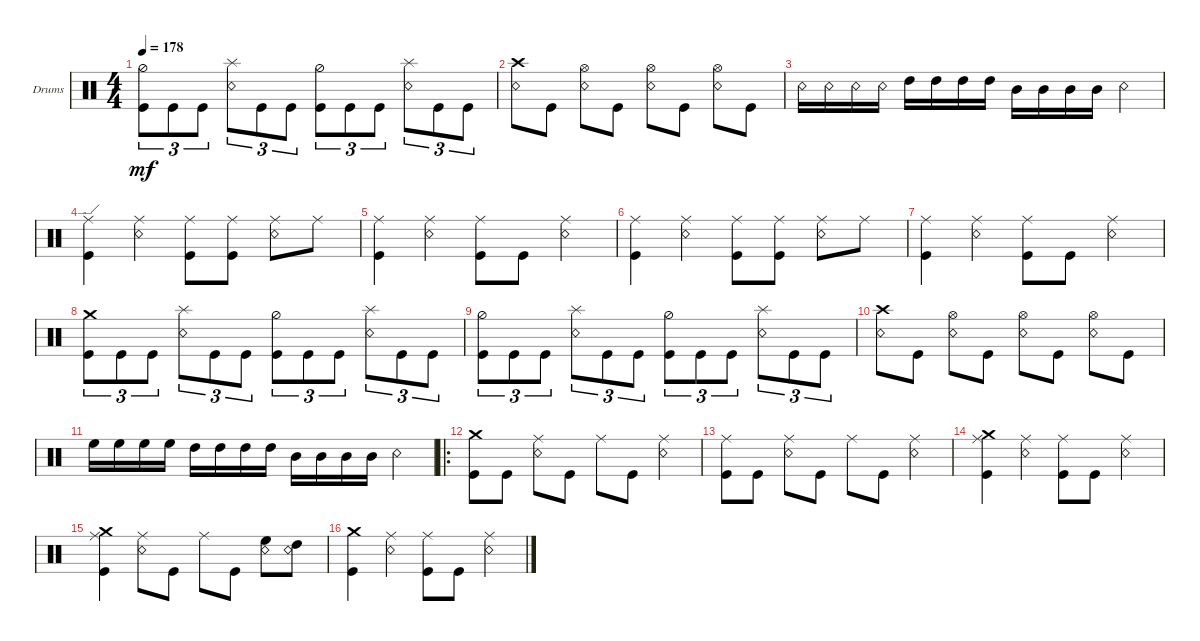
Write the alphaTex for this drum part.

\defaultSystemsLayout 4
\bracketExtendMode groupsimilarinstruments
\firstSystemTrackNameOrientation horizontal
\otherSystemsTrackNameOrientation horizontal
\track ("Drumkit" "Drums") {instrument percussion}
\staff {score}
\articulation defaults
\ts (4 4)
\tempo 178
\clef neutral
\ks c
("Kick (hit)" "Hi-Hat (half)").8{tu (3 2) dy mf} "Kick (hit)".8{tu (3 2)} "Kick (hit)".8{tu (3 2)} ("Snare (rim shot)" "Splash (hit)").8{tu (3 2)} "Kick (hit)".8{tu (3 2)} "Kick (hit)".8{tu (3 2)} ("Kick (hit)" "Hi-Hat (half)").8{tu (3 2)} "Kick (hit)".8{tu (3 2)} "Kick (hit)".8{tu (3 2)} ("Snare (rim shot)" "Splash (hit)").8{tu (3 2)} "Kick (hit)".8{tu (3 2)} "Kick (hit)".8{tu (3 2)} |
("Crash high (hit)" "Snare (rim shot)").8 "Kick (hit)".8 ("Snare (rim shot)" "Hi-Hat (open)").8 "Kick (hit)".8 ("Snare (rim shot)" "Hi-Hat (open)").8 "Kick (hit)".8 ("Snare (rim shot)" "Hi-Hat (open)").8 "Kick (hit)".8 |
"Snare (rim shot)".16 "Snare (rim shot)".16 "Snare (rim shot)".16 "Snare (rim shot)".16 "High Tom (hit)".16 "High Tom (hit)".16 "High Tom (hit)".16 "High Tom (hit)".16 "Mid Tom (hit)".16 "Mid Tom (hit)".16 "Mid Tom (hit)".16 "Mid Tom (hit)".16 "Snare (rim shot)".4 |
("Kick (hit)" "Ride (edge)").4 ("Ride (middle)" "Snare (rim shot)").4 ("Ride (middle)" "Kick (hit)").8 ("Kick (hit)" "Ride (middle)").8 ("Ride (middle)" "Snare (rim shot)").8 "Ride (middle)".8 |
("Kick (hit)" "Ride (middle)").4 ("Ride (middle)" "Snare (rim shot)").4 ("Ride (middle)" "Kick (hit)").8 "Kick (hit)".8 ("Ride (middle)" "Snare (rim shot)").4 |
("Kick (hit)" "Ride (middle)").4 ("Ride (middle)" "Snare (rim shot)").4 ("Ride (middle)" "Kick (hit)").8 ("Kick (hit)" "Ride (middle)").8 ("Ride (middle)" "Snare (rim shot)").8 "Ride (middle)".8 |
("Kick (hit)" "Ride (middle)").4 ("Ride (middle)" "Snare (rim shot)").4 ("Ride (middle)" "Kick (hit)").8 "Kick (hit)".8 ("Ride (middle)" "Snare (rim shot)").4 |
("Kick (hit)" "Crash medium (hit)").8{tu (3 2)} "Kick (hit)".8{tu (3 2)} "Kick (hit)".8{tu (3 2)} ("Snare (rim shot)" "Splash (hit)").8{tu (3 2)} "Kick (hit)".8{tu (3 2)} "Kick (hit)".8{tu (3 2)} ("Kick (hit)" "Hi-Hat (half)").8{tu (3 2)} "Kick (hit)".8{tu (3 2)} "Kick (hit)".8{tu (3 2)} ("Snare (rim shot)" "Splash (hit)").8{tu (3 2)} "Kick (hit)".8{tu (3 2)} "Kick (hit)".8{tu (3 2)} |
("Kick (hit)" "Hi-Hat (half)").8{tu (3 2)} "Kick (hit)".8{tu (3 2)} "Kick (hit)".8{tu (3 2)} ("Snare (rim shot)" "Splash (hit)").8{tu (3 2)} "Kick (hit)".8{tu (3 2)} "Kick (hit)".8{tu (3 2)} ("Kick (hit)" "Hi-Hat (half)").8{tu (3 2)} "Kick (hit)".8{tu (3 2)} "Kick (hit)".8{tu (3 2)} ("Snare (rim shot)" "Splash (hit)").8{tu (3 2)} "Kick (hit)".8{tu (3 2)} "Kick (hit)".8{tu (3 2)} |
("Crash high (hit)" "Snare (rim shot)").8 "Kick (hit)".8 ("Snare (rim shot)" "Hi-Hat (open)").8 "Kick (hit)".8 ("Snare (rim shot)" "Hi-Hat (open)").8 "Kick (hit)".8 ("Snare (rim shot)" "Hi-Hat (open)").8 "Kick (hit)".8 |
"High Floor Tom (hit)".16 "High Floor Tom (hit)".16 "High Floor Tom (hit)".16 "High Floor Tom (hit)".16 "High Tom (hit)".16 "High Tom (hit)".16 "High Tom (hit)".16 "High Tom (hit)".16 "Mid Tom (hit)".16 "Mid Tom (hit)".16 "Mid Tom (hit)".16 "Mid Tom (hit)".16 "Snare (rim shot)".4 |
\ro
("Kick (hit)" "Crash medium (hit)").8 "Kick (hit)".8 ("Snare (rim shot)" "Ride (middle)").8 "Kick (hit)".8 "Ride (middle)".8 "Kick (hit)".8 ("Snare (rim shot)" "Ride (middle)").4 |
("Kick (hit)" "Ride (middle)").8 "Kick (hit)".8 ("Snare (rim shot)" "Ride (middle)").8 "Kick (hit)".8 "Ride (middle)".8 "Kick (hit)".8 ("Snare (rim shot)" "Ride (middle)").4 |
("Kick (hit)" "Ride (middle)" "Crash medium (hit)").4 ("Ride (middle)" "Snare (rim shot)").4 ("Ride (middle)" "Kick (hit)").8 "Kick (hit)".8 ("Snare (rim shot)" "Ride (middle)").4 |
("Kick (hit)" "Ride (middle)" "Crash medium (hit)").4 ("Ride (middle)" "Snare (rim shot)").8 "Kick (hit)".8 "Ride (middle)".8 "Kick (hit)".8 ("Snare (rim shot)" "High Floor Tom (hit)").8 ("Snare (rim shot)" "High Tom (hit)").8 |
("Kick (hit)" "Crash medium (hit)").4 ("Ride (middle)" "Snare (rim shot)").4 ("Ride (middle)" "Kick (hit)").8 "Kick (hit)".8 ("Snare (rim shot)" "Ride (middle)").4
